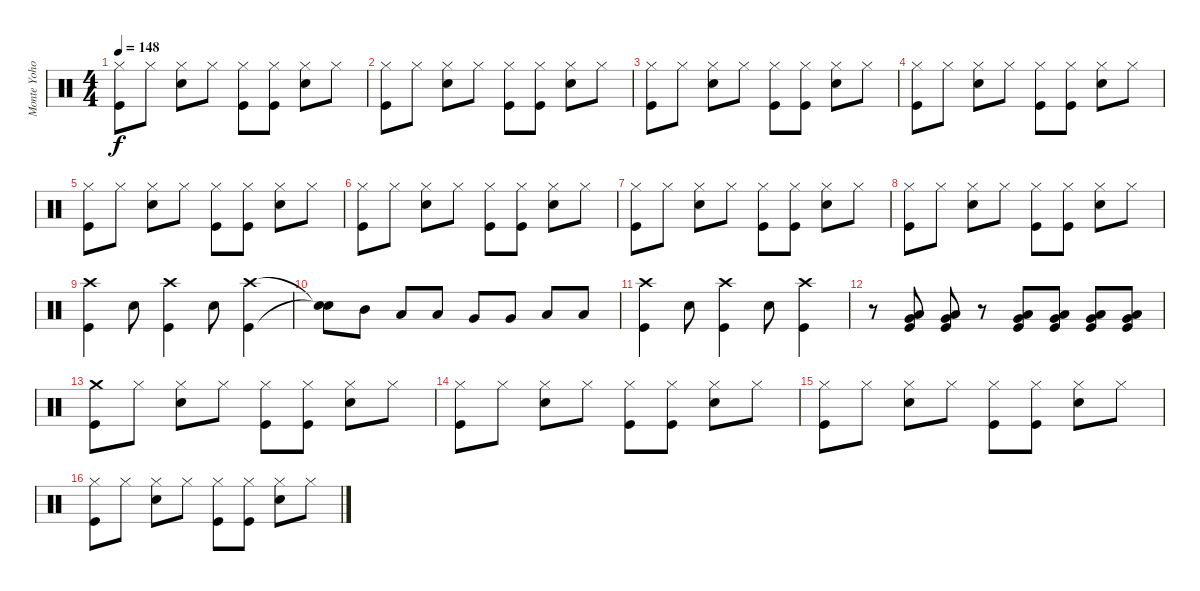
\track ("Monte Yoho Drums" "Monte Yoho") {instrument percussion}
\staff {score}
\articulation defaults
\ts (4 4)
\tempo 148
\clef neutral
\ks c
("Hi-Hat (closed)" "Kick (hit)").8{dy f} "Hi-Hat (closed)".8 ("Hi-Hat (closed)" "Snare (hit) 2").8 "Hi-Hat (closed)".8 ("Hi-Hat (closed)" "Kick (hit)").8 ("Hi-Hat (closed)" "Kick (hit)").8 ("Hi-Hat (closed)" "Snare (hit) 2").8 "Hi-Hat (closed)".8 |
("Hi-Hat (closed)" "Kick (hit)").8 "Hi-Hat (closed)".8 ("Hi-Hat (closed)" "Snare (hit) 2").8 "Hi-Hat (closed)".8 ("Hi-Hat (closed)" "Kick (hit)").8 ("Hi-Hat (closed)" "Kick (hit)").8 ("Hi-Hat (closed)" "Snare (hit) 2").8 "Hi-Hat (closed)".8 |
("Hi-Hat (closed)" "Kick (hit)").8 "Hi-Hat (closed)".8 ("Hi-Hat (closed)" "Snare (hit) 2").8 "Hi-Hat (closed)".8 ("Hi-Hat (closed)" "Kick (hit)").8 ("Hi-Hat (closed)" "Kick (hit)").8 ("Hi-Hat (closed)" "Snare (hit) 2").8 "Hi-Hat (closed)".8 |
("Hi-Hat (closed)" "Kick (hit)").8 "Hi-Hat (closed)".8 ("Hi-Hat (closed)" "Snare (hit) 2").8 "Hi-Hat (closed)".8 ("Hi-Hat (closed)" "Kick (hit)").8 ("Hi-Hat (closed)" "Kick (hit)").8 ("Hi-Hat (closed)" "Snare (hit) 2").8 "Hi-Hat (closed)".8 |
("Hi-Hat (closed)" "Kick (hit)").8 "Hi-Hat (closed)".8 ("Hi-Hat (closed)" "Snare (hit) 2").8 "Hi-Hat (closed)".8 ("Hi-Hat (closed)" "Kick (hit)").8 ("Hi-Hat (closed)" "Kick (hit)").8 ("Hi-Hat (closed)" "Snare (hit) 2").8 "Hi-Hat (closed)".8 |
("Hi-Hat (closed)" "Kick (hit)").8 "Hi-Hat (closed)".8 ("Hi-Hat (closed)" "Snare (hit) 2").8 "Hi-Hat (closed)".8 ("Hi-Hat (closed)" "Kick (hit)").8 ("Hi-Hat (closed)" "Kick (hit)").8 ("Hi-Hat (closed)" "Snare (hit) 2").8 "Hi-Hat (closed)".8 |
("Hi-Hat (closed)" "Kick (hit)").8 "Hi-Hat (closed)".8 ("Hi-Hat (closed)" "Snare (hit) 2").8 "Hi-Hat (closed)".8 ("Hi-Hat (closed)" "Kick (hit)").8 ("Hi-Hat (closed)" "Kick (hit)").8 ("Hi-Hat (closed)" "Snare (hit) 2").8 "Hi-Hat (closed)".8 |
("Hi-Hat (closed)" "Kick (hit)").8 "Hi-Hat (closed)".8 ("Hi-Hat (closed)" "Snare (hit) 2").8 "Hi-Hat (closed)".8 ("Hi-Hat (closed)" "Kick (hit)").8 ("Hi-Hat (closed)" "Kick (hit)").8 ("Hi-Hat (closed)" "Snare (hit) 2").8 "Hi-Hat (closed)".8 |
("Crash high (hit)" "Kick (hit)").4 "Snare (hit) 2".8 ("Crash high (hit)" "Kick (hit)").4 "Snare (hit) 2".8 ("Crash high (hit)" "Kick (hit)").4 |
("Snare (hit)"{t} "Snare (hit)"{t}).8 "Mid Tom (hit)".8 "Low Tom (hit)".8 "Low Tom (hit)".8 "Very Low Tom (hit)".8 "Very Low Tom (hit)".8 "Low Floor Tom (hit)".8 "Low Floor Tom (hit)".8 |
("Crash high (hit)" "Kick (hit)").4 "Snare (hit) 2".8 ("Crash high (hit)" "Kick (hit)").4 "Snare (hit) 2".8 ("Crash high (hit)" "Kick (hit)").4 |
r.8 ("Low Tom (hit)" "Very Low Tom (hit)" "Kick (hit)").8 ("Low Tom (hit)" "Very Low Tom (hit)" "Kick (hit)").8 r.8 ("Low Tom (hit)" "Very Low Tom (hit)" "Kick (hit)").8 ("Low Tom (hit)" "Very Low Tom (hit)" "Kick (hit)").8 ("Low Tom (hit)" "Very Low Tom (hit)" "Kick (hit)").8 ("Low Tom (hit)" "Very Low Tom (hit)" "Kick (hit)").8 |
("Crash medium (hit)" "Kick (hit)").8 "Hi-Hat (closed)".8 ("Hi-Hat (closed)" "Snare (hit) 2").8 "Hi-Hat (closed)".8 ("Hi-Hat (closed)" "Kick (hit)").8 ("Hi-Hat (closed)" "Kick (hit)").8 ("Hi-Hat (closed)" "Snare (hit) 2").8 "Hi-Hat (closed)".8 |
("Hi-Hat (closed)" "Kick (hit)").8 "Hi-Hat (closed)".8 ("Hi-Hat (closed)" "Snare (hit) 2").8 "Hi-Hat (closed)".8 ("Hi-Hat (closed)" "Kick (hit)").8 ("Hi-Hat (closed)" "Kick (hit)").8 ("Hi-Hat (closed)" "Snare (hit) 2").8 "Hi-Hat (closed)".8 |
("Hi-Hat (closed)" "Kick (hit)").8 "Hi-Hat (closed)".8 ("Hi-Hat (closed)" "Snare (hit) 2").8 "Hi-Hat (closed)".8 ("Hi-Hat (closed)" "Kick (hit)").8 ("Hi-Hat (closed)" "Kick (hit)").8 ("Hi-Hat (closed)" "Snare (hit) 2").8 "Hi-Hat (closed)".8 |
("Hi-Hat (closed)" "Kick (hit)").8 "Hi-Hat (closed)".8 ("Hi-Hat (closed)" "Snare (hit) 2").8 "Hi-Hat (closed)".8 ("Hi-Hat (closed)" "Kick (hit)").8 ("Hi-Hat (closed)" "Kick (hit)").8 ("Hi-Hat (closed)" "Snare (hit) 2").8 "Hi-Hat (closed)".8
